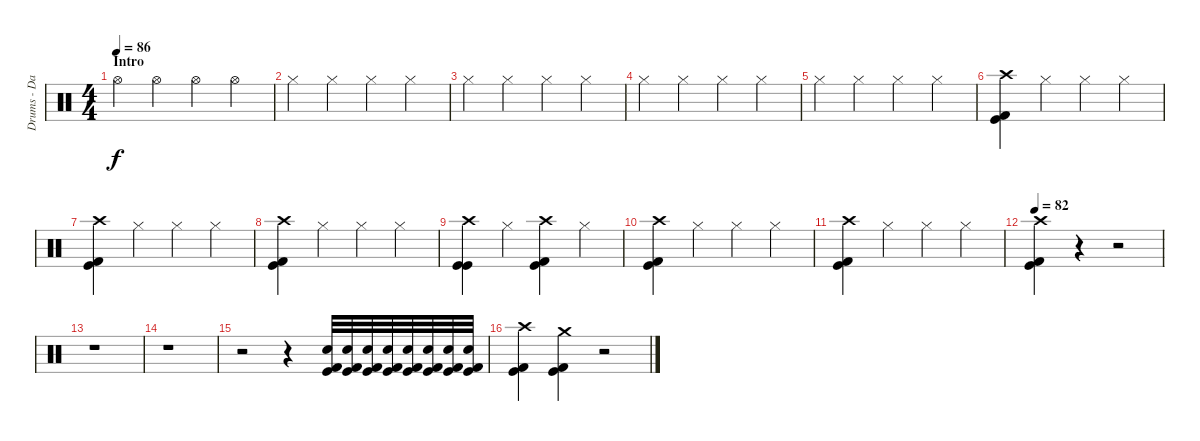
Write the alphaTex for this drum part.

\track ("Drums - Daniel Zimmermann" "Drums - Da") {instrument percussion}
\staff {score}
\articulation defaults
\ts (4 4)
\section ("" "Intro")
\tempo 86
\tempo 79
\tempo 86
\clef neutral
\ks c "Hi-Hat (open)".4{dy f} "Hi-Hat (open)".4 "Hi-Hat (open)".4 "Hi-Hat (open)".4
|
"Hi-Hat (closed)".4 "Hi-Hat (closed)".4 "Hi-Hat (closed)".4 "Hi-Hat (closed)".4 |
"Hi-Hat (closed)".4 "Hi-Hat (closed)".4 "Hi-Hat (closed)".4 "Hi-Hat (closed)".4 |
"Hi-Hat (closed)".4 "Hi-Hat (closed)".4 "Hi-Hat (closed)".4 "Hi-Hat (closed)".4 |
"Hi-Hat (closed)".4 "Hi-Hat (closed)".4 "Hi-Hat (closed)".4 "Hi-Hat (closed)".4 |
("Kick (hit)" "Kick (hit) 2" "Crash high (hit)").4 "Hi-Hat (closed)".4 "Hi-Hat (closed)".4 "Hi-Hat (closed)".4 |
("Kick (hit)" "Kick (hit) 2" "Crash high (hit)").4 "Hi-Hat (closed)".4 "Hi-Hat (closed)".4 "Hi-Hat (closed)".4 |
("Kick (hit)" "Kick (hit) 2" "Crash high (hit)").4 "Hi-Hat (closed)".4 "Hi-Hat (closed)".4 "Hi-Hat (closed)".4 |
("Kick (hit)" "Kick (hit)" "Crash high (hit)").4 "Hi-Hat (closed)".4 ("Kick (hit)" "Kick (hit) 2" "Crash high (hit)").4 "Hi-Hat (closed)".4 |
("Kick (hit)" "Kick (hit) 2" "Crash high (hit)").4 "Hi-Hat (closed)".4 "Hi-Hat (closed)".4 "Hi-Hat (closed)".4 |
("Kick (hit)" "Kick (hit) 2" "Crash high (hit)").4 "Hi-Hat (closed)".4 "Hi-Hat (closed)".4 "Hi-Hat (closed)".4 |
\tempo 82
("Kick (hit)" "Kick (hit) 2" "Crash high (hit)").4 r.4 r.2 |
r.1 |
r.1 |
r.2 r.4 ("Kick (hit)" "Kick (hit) 2" "Electric Snare (hit)").32 ("Kick (hit)" "Kick (hit) 2" "Electric Snare (hit)").32 ("Kick (hit)" "Kick (hit) 2" "Electric Snare (hit)").32 ("Kick (hit)" "Kick (hit) 2" "Electric Snare (hit)").32 ("Kick (hit)" "Kick (hit) 2" "Electric Snare (hit)").32 ("Kick (hit)" "Kick (hit) 2" "Electric Snare (hit)").32 ("Kick (hit)" "Kick (hit) 2" "Electric Snare (hit)").32 ("Kick (hit)" "Kick (hit) 2" "Electric Snare (hit)").32 |
("Kick (hit)" "Kick (hit) 2" "Crash high (hit)").4 ("Kick (hit)" "Kick (hit) 2" "Crash medium (hit)").4 r.2
